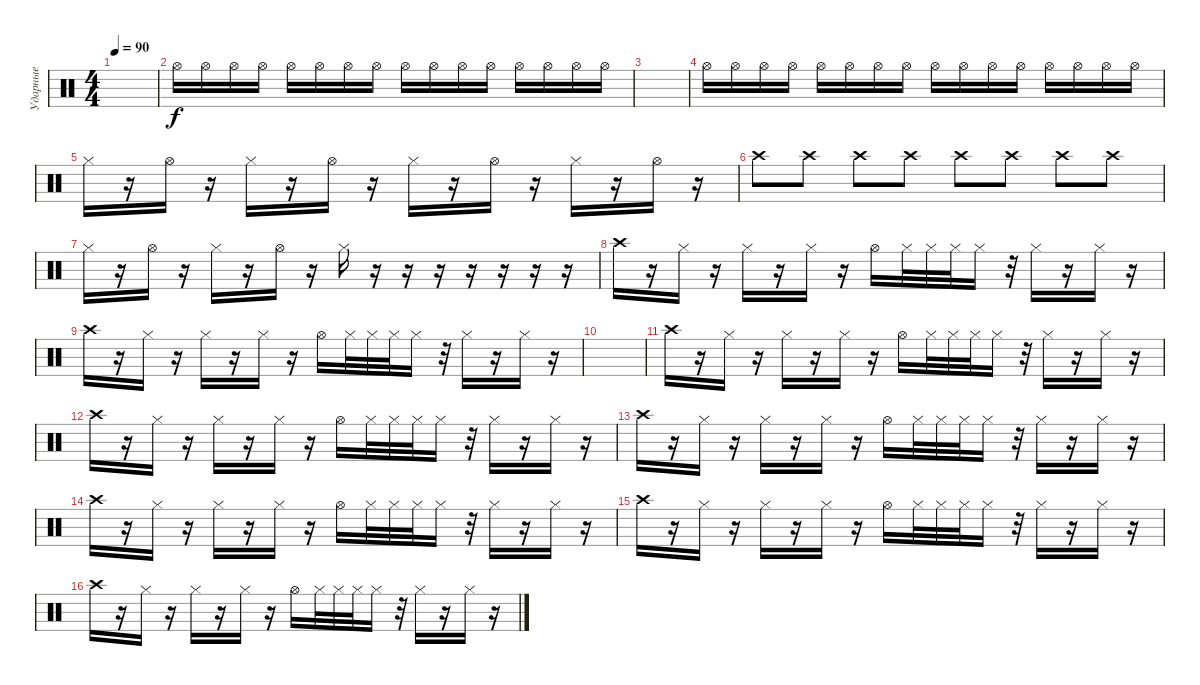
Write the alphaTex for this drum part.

\track ("Ударные" "Ударные") {instrument percussion}
\staff {score}
\articulation defaults
\ts (4 4)
\tempo 90
\clef neutral
\ks c
|
"Hi-Hat (open)".16 "Hi-Hat (open)".16 "Hi-Hat (open)".16 "Hi-Hat (open)".16 "Hi-Hat (open)".16 "Hi-Hat (open)".16 "Hi-Hat (open)".16 "Hi-Hat (open)".16 "Hi-Hat (open)".16 "Hi-Hat (open)".16 "Hi-Hat (open)".16 "Hi-Hat (open)".16 "Hi-Hat (open)".16 "Hi-Hat (open)".16 "Hi-Hat (open)".16 "Hi-Hat (open)".16 |
|
"Hi-Hat (open)".16 "Hi-Hat (open)".16 "Hi-Hat (open)".16 "Hi-Hat (open)".16 "Hi-Hat (open)".16 "Hi-Hat (open)".16 "Hi-Hat (open)".16 "Hi-Hat (open)".16 "Hi-Hat (open)".16 "Hi-Hat (open)".16 "Hi-Hat (open)".16 "Hi-Hat (open)".16 "Hi-Hat (open)".16 "Hi-Hat (open)".16 "Hi-Hat (open)".16 "Hi-Hat (open)".16 |
"Hi-Hat (closed)".16 r.16 "Hi-Hat (open)".16 r.16 "Hi-Hat (closed)".16 r.16 "Hi-Hat (open)".16 r.16 "Hi-Hat (closed)".16 r.16 "Hi-Hat (open)".16 r.16 "Hi-Hat (closed)".16 r.16 "Hi-Hat (open)".16 r.16 |
"Crash high (hit)".8 "Crash high (hit)".8 "Crash high (hit)".8 "Crash high (hit)".8 "Crash high (hit)".8 "Crash high (hit)".8 "Crash high (hit)".8 "Crash high (hit)".8 |
"Hi-Hat (closed)".16 r.16 "Hi-Hat (open)".16 r.16 "Hi-Hat (closed)".16 r.16 "Hi-Hat (open)".16 r.16 "Hi-Hat (closed)".16 r.16 r.16 r.16 r.16 r.16 r.16 r.16 |
"Crash high (hit)".16 r.16 "Hi-Hat (closed)".16 r.16 "Hi-Hat (closed)".16 r.16 "Hi-Hat (closed)".16 r.16 "Hi-Hat (open)".16 "Hi-Hat (closed)".32 "Hi-Hat (closed)".32 "Hi-Hat (closed)".32 "Hi-Hat (closed)".16 r.32 "Hi-Hat (closed)".16 r.16 "Hi-Hat (closed)".16 r.16 |
"Crash high (hit)".16 r.16 "Hi-Hat (closed)".16 r.16 "Hi-Hat (closed)".16 r.16 "Hi-Hat (closed)".16 r.16 "Hi-Hat (open)".16 "Hi-Hat (closed)".32 "Hi-Hat (closed)".32 "Hi-Hat (closed)".32 "Hi-Hat (closed)".16 r.32 "Hi-Hat (closed)".16 r.16 "Hi-Hat (closed)".16 r.16 |
|
"Crash high (hit)".16 r.16 "Hi-Hat (closed)".16 r.16 "Hi-Hat (closed)".16 r.16 "Hi-Hat (closed)".16 r.16 "Hi-Hat (open)".16 "Hi-Hat (closed)".32 "Hi-Hat (closed)".32 "Hi-Hat (closed)".32 "Hi-Hat (closed)".16 r.32 "Hi-Hat (closed)".16 r.16 "Hi-Hat (closed)".16 r.16 |
"Crash high (hit)".16 r.16 "Hi-Hat (closed)".16 r.16 "Hi-Hat (closed)".16 r.16 "Hi-Hat (closed)".16 r.16 "Hi-Hat (open)".16 "Hi-Hat (closed)".32 "Hi-Hat (closed)".32 "Hi-Hat (closed)".32 "Hi-Hat (closed)".16 r.32 "Hi-Hat (closed)".16 r.16 "Hi-Hat (closed)".16 r.16 |
"Crash high (hit)".16 r.16 "Hi-Hat (closed)".16 r.16 "Hi-Hat (closed)".16 r.16 "Hi-Hat (closed)".16 r.16 "Hi-Hat (open)".16 "Hi-Hat (closed)".32 "Hi-Hat (closed)".32 "Hi-Hat (closed)".32 "Hi-Hat (closed)".16 r.32 "Hi-Hat (closed)".16 r.16 "Hi-Hat (closed)".16 r.16 |
"Crash high (hit)".16 r.16 "Hi-Hat (closed)".16 r.16 "Hi-Hat (closed)".16 r.16 "Hi-Hat (closed)".16 r.16 "Hi-Hat (open)".16 "Hi-Hat (closed)".32 "Hi-Hat (closed)".32 "Hi-Hat (closed)".32 "Hi-Hat (closed)".16 r.32 "Hi-Hat (closed)".16 r.16 "Hi-Hat (closed)".16 r.16 |
"Crash high (hit)".16 r.16 "Hi-Hat (closed)".16 r.16 "Hi-Hat (closed)".16 r.16 "Hi-Hat (closed)".16 r.16 "Hi-Hat (open)".16 "Hi-Hat (closed)".32 "Hi-Hat (closed)".32 "Hi-Hat (closed)".32 "Hi-Hat (closed)".16 r.32 "Hi-Hat (closed)".16 r.16 "Hi-Hat (closed)".16 r.16 |
"Crash high (hit)".16 r.16 "Hi-Hat (closed)".16 r.16 "Hi-Hat (closed)".16 r.16 "Hi-Hat (closed)".16 r.16 "Hi-Hat (open)".16 "Hi-Hat (closed)".32 "Hi-Hat (closed)".32 "Hi-Hat (closed)".32 "Hi-Hat (closed)".16 r.32 "Hi-Hat (closed)".16 r.16 "Hi-Hat (closed)".16 r.16
